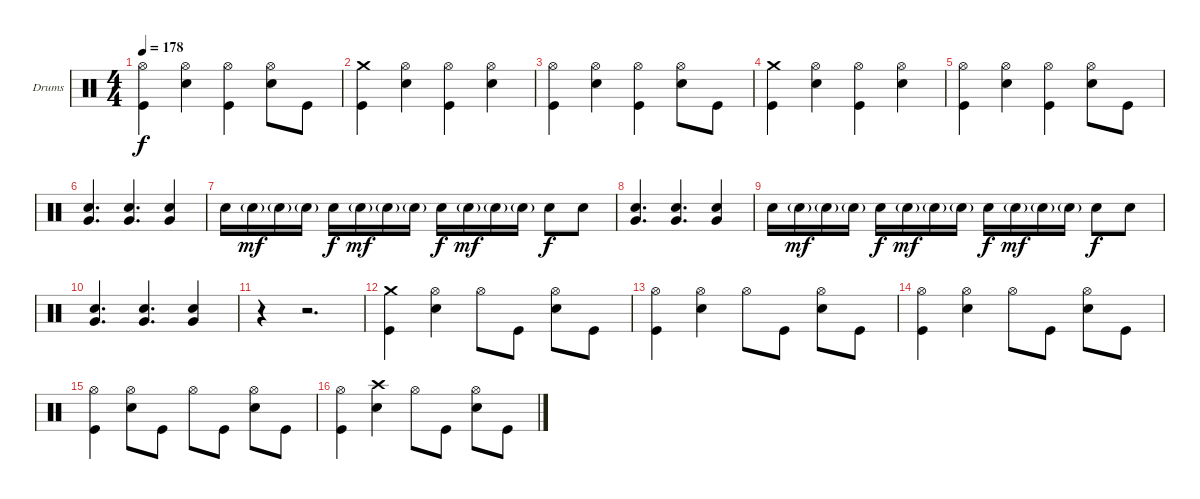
\bracketExtendMode groupsimilarinstruments
\firstSystemTrackNameOrientation horizontal
\otherSystemsTrackNameOrientation horizontal
\track ("Drumkit" "Drums") {instrument percussion}
\staff {score}
\articulation defaults
\ts (4 4)
\tempo 178
\clef neutral
\ks c
("Hi-Hat (open)" "Kick (hit)").4{dy f} ("Hi-Hat (open)" "Snare (hit) 2").4 ("Hi-Hat (open)" "Kick (hit)").4 ("Hi-Hat (open)" "Snare (hit) 2").8 "Kick (hit)".8 |
("Crash medium (hit)" "Kick (hit)").4 ("Hi-Hat (open)" "Snare (hit) 2").4 ("Hi-Hat (open)" "Kick (hit)").4 ("Hi-Hat (open)" "Snare (hit) 2").4 |
("Hi-Hat (open)" "Kick (hit)").4 ("Hi-Hat (open)" "Snare (hit) 2").4 ("Hi-Hat (open)" "Kick (hit)").4 ("Hi-Hat (open)" "Snare (hit) 2").8 "Kick (hit)".8 |
("Crash medium (hit)" "Kick (hit)").4 ("Hi-Hat (open)" "Snare (hit) 2").4 ("Hi-Hat (open)" "Kick (hit)").4 ("Hi-Hat (open)" "Snare (hit) 2").4 |
("Hi-Hat (open)" "Kick (hit)").4 ("Hi-Hat (open)" "Snare (hit) 2").4 ("Hi-Hat (open)" "Kick (hit)").4 ("Hi-Hat (open)" "Snare (hit) 2").8 "Kick (hit)".8 |
("Snare (hit) 2" "Very Low Tom (hit)").4{d} ("Snare (hit) 2" "Very Low Tom (hit)").4{d} ("Snare (hit) 2" "Very Low Tom (hit)").4 |
"Snare (hit) 2".16 "Snare (hit) 2"{g}.16{dy mf} "Snare (hit) 2"{g}.16 "Snare (hit) 2"{g}.16 "Snare (hit) 2".16{dy f} "Snare (hit) 2"{g}.16{dy mf} "Snare (hit) 2"{g}.16 "Snare (hit) 2"{g}.16 "Snare (hit) 2".16{dy f} "Snare (hit) 2"{g}.16{dy mf} "Snare (hit) 2"{g}.16 "Snare (hit) 2"{g}.16 "Snare (hit) 2".8{dy f} "Snare (hit) 2".8 |
("Snare (hit) 2" "Very Low Tom (hit)").4{d} ("Snare (hit) 2" "Very Low Tom (hit)").4{d} ("Snare (hit) 2" "Very Low Tom (hit)").4 |
"Snare (hit) 2".16 "Snare (hit) 2"{g}.16{dy mf} "Snare (hit) 2"{g}.16 "Snare (hit) 2"{g}.16 "Snare (hit) 2".16{dy f} "Snare (hit) 2"{g}.16{dy mf} "Snare (hit) 2"{g}.16 "Snare (hit) 2"{g}.16 "Snare (hit) 2".16{dy f} "Snare (hit) 2"{g}.16{dy mf} "Snare (hit) 2"{g}.16 "Snare (hit) 2"{g}.16 "Snare (hit) 2".8{dy f} "Snare (hit) 2".8 |
("Snare (hit) 2" "Very Low Tom (hit)").4{d} ("Snare (hit) 2" "Very Low Tom (hit)").4{d} ("Snare (hit) 2" "Very Low Tom (hit)").4 |
r.4 r.2{d} |
("Crash medium (hit)" "Kick (hit)").4 ("Hi-Hat (open)" "Snare (hit) 2").4 "Hi-Hat (open)".8 "Kick (hit)".8 ("Hi-Hat (open)" "Snare (hit) 2").8 "Kick (hit)".8 |
("Hi-Hat (open)" "Kick (hit)").4 ("Hi-Hat (open)" "Snare (hit) 2").4 "Hi-Hat (open)".8 "Kick (hit)".8 ("Hi-Hat (open)" "Snare (hit) 2").8 "Kick (hit)".8 |
("Hi-Hat (open)" "Kick (hit)").4 ("Hi-Hat (open)" "Snare (hit) 2").4 "Hi-Hat (open)".8 "Kick (hit)".8 ("Hi-Hat (open)" "Snare (hit) 2").8 "Kick (hit)".8 |
("Hi-Hat (open)" "Kick (hit)").4 ("Hi-Hat (open)" "Snare (hit) 2").8 "Kick (hit)".8 "Hi-Hat (open)".8 "Kick (hit)".8 ("Hi-Hat (open)" "Snare (hit) 2").8 "Kick (hit)".8 |
("Hi-Hat (open)" "Kick (hit)").4 ("Crash high (hit)" "Snare (hit) 2").4 "Hi-Hat (open)".8 "Kick (hit)".8 ("Hi-Hat (open)" "Snare (hit) 2").8 "Kick (hit)".8
